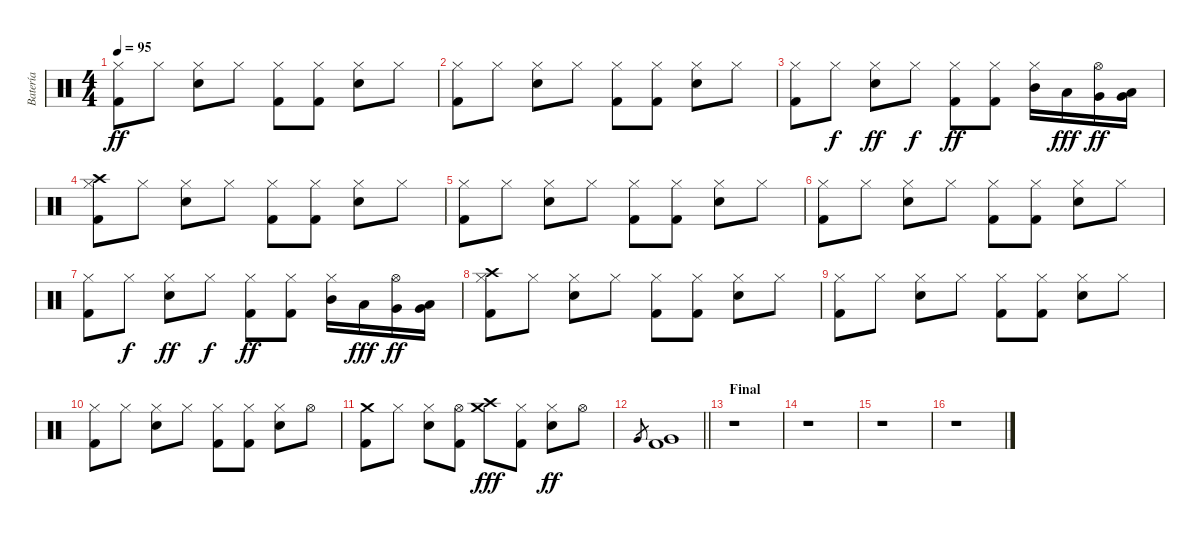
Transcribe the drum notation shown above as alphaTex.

\track ("Batería" "Batería") {instrument percussion}
\staff {score}
\articulation defaults
\ts (4 4)
\tempo 95
\clef neutral
\ks c
("Hi-Hat (closed)" "Kick (hit) 2").8{dy ff} "Hi-Hat (closed)".8 ("Hi-Hat (closed)" "Electric Snare (hit)").8 "Hi-Hat (closed)".8 ("Hi-Hat (closed)" "Kick (hit) 2").8 ("Hi-Hat (closed)" "Kick (hit) 2").8 ("Hi-Hat (closed)" "Electric Snare (hit)").8 "Hi-Hat (closed)".8 |
("Hi-Hat (closed)" "Kick (hit) 2").8 "Hi-Hat (closed)".8 ("Hi-Hat (closed)" "Electric Snare (hit)").8 "Hi-Hat (closed)".8 ("Hi-Hat (closed)" "Kick (hit) 2").8 ("Hi-Hat (closed)" "Kick (hit) 2").8 ("Hi-Hat (closed)" "Electric Snare (hit)").8 "Hi-Hat (closed)".8 |
("Hi-Hat (closed)" "Kick (hit) 2").8 "Hi-Hat (closed)".8{dy f} ("Hi-Hat (closed)" "Electric Snare (hit)").8{dy ff} "Hi-Hat (closed)".8{dy f} ("Hi-Hat (closed)" "Kick (hit) 2").8{dy ff} ("Hi-Hat (closed)" "Kick (hit) 2").8 ("Hi-Hat (closed)" "Mid Tom (hit)").16 "Low Tom (hit)".16{dy fff} ("Hi-Hat (open)" "Very Low Tom (hit)").16{dy ff} ("Very Low Tom (hit)" "Low Tom (hit)").16 |
("Hi-Hat (closed)" "Crash high (hit)" "Kick (hit) 2").8 "Hi-Hat (closed)".8 ("Hi-Hat (closed)" "Electric Snare (hit)").8 "Hi-Hat (closed)".8 ("Hi-Hat (closed)" "Kick (hit) 2").8 ("Hi-Hat (closed)" "Kick (hit) 2").8 ("Hi-Hat (closed)" "Electric Snare (hit)").8 "Hi-Hat (closed)".8 |
("Hi-Hat (closed)" "Kick (hit) 2").8 "Hi-Hat (closed)".8 ("Hi-Hat (closed)" "Electric Snare (hit)").8 "Hi-Hat (closed)".8 ("Hi-Hat (closed)" "Kick (hit) 2").8 ("Hi-Hat (closed)" "Kick (hit) 2").8 ("Hi-Hat (closed)" "Electric Snare (hit)").8 "Hi-Hat (closed)".8 |
("Hi-Hat (closed)" "Kick (hit) 2").8 "Hi-Hat (closed)".8 ("Hi-Hat (closed)" "Electric Snare (hit)").8 "Hi-Hat (closed)".8 ("Hi-Hat (closed)" "Kick (hit) 2").8 ("Hi-Hat (closed)" "Kick (hit) 2").8 ("Hi-Hat (closed)" "Electric Snare (hit)").8 "Hi-Hat (closed)".8 |
("Hi-Hat (closed)" "Kick (hit) 2").8 "Hi-Hat (closed)".8{dy f} ("Hi-Hat (closed)" "Electric Snare (hit)").8{dy ff} "Hi-Hat (closed)".8{dy f} ("Hi-Hat (closed)" "Kick (hit) 2").8{dy ff} ("Hi-Hat (closed)" "Kick (hit) 2").8 ("Hi-Hat (closed)" "Mid Tom (hit)").16 "Low Tom (hit)".16{dy fff} ("Hi-Hat (open)" "Very Low Tom (hit)").16{dy ff} ("Very Low Tom (hit)" "Low Tom (hit)").16 |
("Hi-Hat (closed)" "Crash high (hit)" "Kick (hit) 2").8 "Hi-Hat (closed)".8 ("Hi-Hat (closed)" "Electric Snare (hit)").8 "Hi-Hat (closed)".8 ("Hi-Hat (closed)" "Kick (hit) 2").8 ("Hi-Hat (closed)" "Kick (hit) 2").8 ("Hi-Hat (closed)" "Electric Snare (hit)").8 "Hi-Hat (closed)".8 |
("Hi-Hat (closed)" "Kick (hit) 2").8 "Hi-Hat (closed)".8 ("Hi-Hat (closed)" "Electric Snare (hit)").8 "Hi-Hat (closed)".8 ("Hi-Hat (closed)" "Kick (hit) 2").8 ("Hi-Hat (closed)" "Kick (hit) 2").8 ("Hi-Hat (closed)" "Electric Snare (hit)").8 "Hi-Hat (closed)".8 |
("Hi-Hat (closed)" "Kick (hit) 2").8 "Hi-Hat (closed)".8 ("Hi-Hat (closed)" "Electric Snare (hit)").8 "Hi-Hat (closed)".8 ("Hi-Hat (closed)" "Kick (hit) 2").8 ("Hi-Hat (closed)" "Kick (hit) 2").8 ("Hi-Hat (closed)" "Electric Snare (hit)").8 "Hi-Hat (open)".8 |
("Crash medium (hit)" "Kick (hit) 2").8 "Hi-Hat (closed)".8 ("Hi-Hat (closed)" "Electric Snare (hit)").8 ("Hi-Hat (open)" "Kick (hit) 2").8 ("Crash high (hit)" "Crash medium (hit)").8{dy fff} ("Hi-Hat (closed)" "Kick (hit) 2").8 ("Hi-Hat (closed)" "Electric Snare (hit)").8{dy ff} "Hi-Hat (open)".8 |
\barLineRight lightlight "Very Low Tom (hit)".8{gr}
("Very Low Tom (hit)" "Kick (hit) 2").1 |
\section ("" "Final")
r.1 |
r.1 |
r.1 |
r.1
